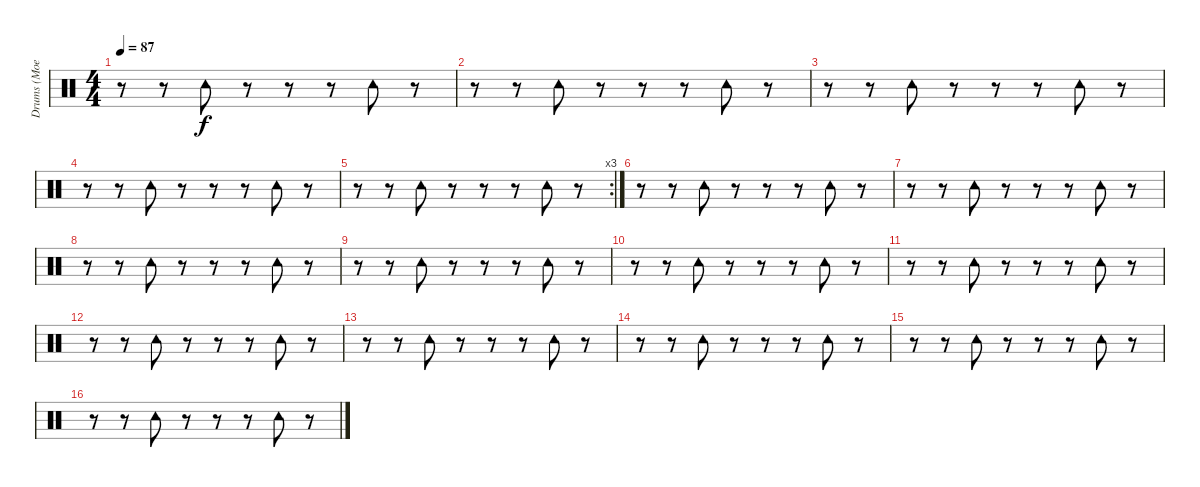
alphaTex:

\track ("Drums (Moe Tucker)" "Drums (Moe") {instrument percussion}
\staff {score}
\articulation defaults
\ts (4 4)
\tempo 87
\clef neutral
\ks c
r.8{dy f} r.8 "Tambourine (hit)".8 r.8 r.8 r.8 "Tambourine (hit)".8 r.8 |
r.8 r.8 "Tambourine (hit)".8 r.8 r.8 r.8 "Tambourine (hit)".8 r.8 |
r.8 r.8 "Tambourine (hit)".8 r.8 r.8 r.8 "Tambourine (hit)".8 r.8 |
r.8 r.8 "Tambourine (hit)".8 r.8 r.8 r.8 "Tambourine (hit)".8 r.8 |
\rc 3
r.8 r.8 "Tambourine (hit)".8 r.8 r.8 r.8 "Tambourine (hit)".8 r.8 |
r.8 r.8 "Tambourine (hit)".8 r.8 r.8 r.8 "Tambourine (hit)".8 r.8 |
r.8 r.8 "Tambourine (hit)".8 r.8 r.8 r.8 "Tambourine (hit)".8 r.8 |
r.8 r.8 "Tambourine (hit)".8 r.8 r.8 r.8 "Tambourine (hit)".8 r.8 |
r.8 r.8 "Tambourine (hit)".8 r.8 r.8 r.8 "Tambourine (hit)".8 r.8 |
r.8 r.8 "Tambourine (hit)".8 r.8 r.8 r.8 "Tambourine (hit)".8 r.8 |
r.8 r.8 "Tambourine (hit)".8 r.8 r.8 r.8 "Tambourine (hit)".8 r.8 |
r.8 r.8 "Tambourine (hit)".8 r.8 r.8 r.8 "Tambourine (hit)".8 r.8 |
r.8 r.8 "Tambourine (hit)".8 r.8 r.8 r.8 "Tambourine (hit)".8 r.8 |
r.8 r.8 "Tambourine (hit)".8 r.8 r.8 r.8 "Tambourine (hit)".8 r.8 |
r.8 r.8 "Tambourine (hit)".8 r.8 r.8 r.8 "Tambourine (hit)".8 r.8 |
r.8 r.8 "Tambourine (hit)".8 r.8 r.8 r.8 "Tambourine (hit)".8 r.8
